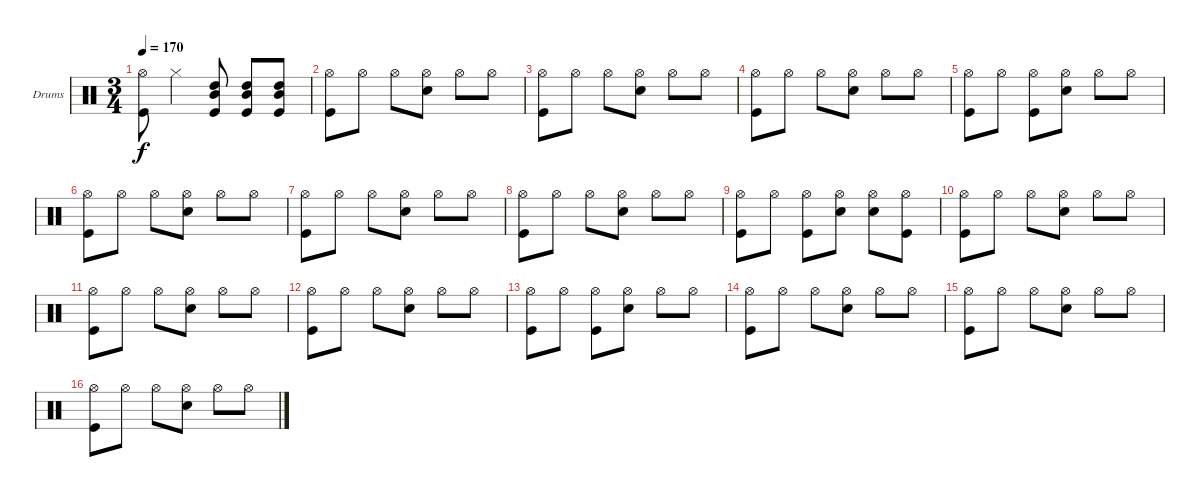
\bracketExtendMode groupsimilarinstruments
\firstSystemTrackNameOrientation horizontal
\otherSystemsTrackNameOrientation horizontal
\track ("Drumkit" "Drums") {instrument percussion}
\staff {score}
\articulation defaults
\ts (3 4)
\tempo 170
\clef neutral
\ks c
("Hi-Hat (open)" "Kick (hit)").8{dy f} "Hi-Hat (closed)".4 ("High Tom (hit)" "Mid Tom (hit)" "Kick (hit)").8 ("High Tom (hit)" "Mid Tom (hit)" "Kick (hit)").8 ("High Tom (hit)" "Mid Tom (hit)" "Kick (hit)").8 |
("Hi-Hat (open)" "Kick (hit)").8 "Hi-Hat (open)".8 "Hi-Hat (open)".8 ("Hi-Hat (open)" "Snare (hit) 2").8 "Hi-Hat (open)".8 "Hi-Hat (open)".8 |
("Hi-Hat (open)" "Kick (hit)").8 "Hi-Hat (open)".8 "Hi-Hat (open)".8 ("Hi-Hat (open)" "Snare (hit) 2").8 "Hi-Hat (open)".8 "Hi-Hat (open)".8 |
("Hi-Hat (open)" "Kick (hit)").8 "Hi-Hat (open)".8 "Hi-Hat (open)".8 ("Hi-Hat (open)" "Snare (hit) 2").8 "Hi-Hat (open)".8 "Hi-Hat (open)".8 |
("Hi-Hat (open)" "Kick (hit)").8 "Hi-Hat (open)".8 ("Hi-Hat (open)" "Kick (hit)").8 ("Hi-Hat (open)" "Snare (hit) 2").8 "Hi-Hat (open)".8 "Hi-Hat (open)".8 |
("Hi-Hat (open)" "Kick (hit)").8 "Hi-Hat (open)".8 "Hi-Hat (open)".8 ("Hi-Hat (open)" "Snare (hit) 2").8 "Hi-Hat (open)".8 "Hi-Hat (open)".8 |
("Hi-Hat (open)" "Kick (hit)").8 "Hi-Hat (open)".8 "Hi-Hat (open)".8 ("Hi-Hat (open)" "Snare (hit) 2").8 "Hi-Hat (open)".8 "Hi-Hat (open)".8 |
("Hi-Hat (open)" "Kick (hit)").8 "Hi-Hat (open)".8 "Hi-Hat (open)".8 ("Hi-Hat (open)" "Snare (hit) 2").8 "Hi-Hat (open)".8 "Hi-Hat (open)".8 |
("Hi-Hat (open)" "Kick (hit)").8 "Hi-Hat (open)".8 ("Hi-Hat (open)" "Kick (hit)").8 ("Hi-Hat (open)" "Snare (hit) 2").8 ("Hi-Hat (open)" "Snare (hit) 2").8 ("Hi-Hat (open)" "Kick (hit)").8 |
("Hi-Hat (open)" "Kick (hit)").8 "Hi-Hat (open)".8 "Hi-Hat (open)".8 ("Hi-Hat (open)" "Snare (hit) 2").8 "Hi-Hat (open)".8 "Hi-Hat (open)".8 |
("Hi-Hat (open)" "Kick (hit)").8 "Hi-Hat (open)".8 "Hi-Hat (open)".8 ("Hi-Hat (open)" "Snare (hit) 2").8 "Hi-Hat (open)".8 "Hi-Hat (open)".8 |
("Hi-Hat (open)" "Kick (hit)").8 "Hi-Hat (open)".8 "Hi-Hat (open)".8 ("Hi-Hat (open)" "Snare (hit) 2").8 "Hi-Hat (open)".8 "Hi-Hat (open)".8 |
("Hi-Hat (open)" "Kick (hit)").8 "Hi-Hat (open)".8 ("Hi-Hat (open)" "Kick (hit)").8 ("Hi-Hat (open)" "Snare (hit) 2").8 "Hi-Hat (open)".8 "Hi-Hat (open)".8 |
("Hi-Hat (open)" "Kick (hit)").8 "Hi-Hat (open)".8 "Hi-Hat (open)".8 ("Hi-Hat (open)" "Snare (hit) 2").8 "Hi-Hat (open)".8 "Hi-Hat (open)".8 |
("Hi-Hat (open)" "Kick (hit)").8 "Hi-Hat (open)".8 "Hi-Hat (open)".8 ("Hi-Hat (open)" "Snare (hit) 2").8 "Hi-Hat (open)".8 "Hi-Hat (open)".8 |
("Hi-Hat (open)" "Kick (hit)").8 "Hi-Hat (open)".8 "Hi-Hat (open)".8 ("Hi-Hat (open)" "Snare (hit) 2").8 "Hi-Hat (open)".8 "Hi-Hat (open)".8
